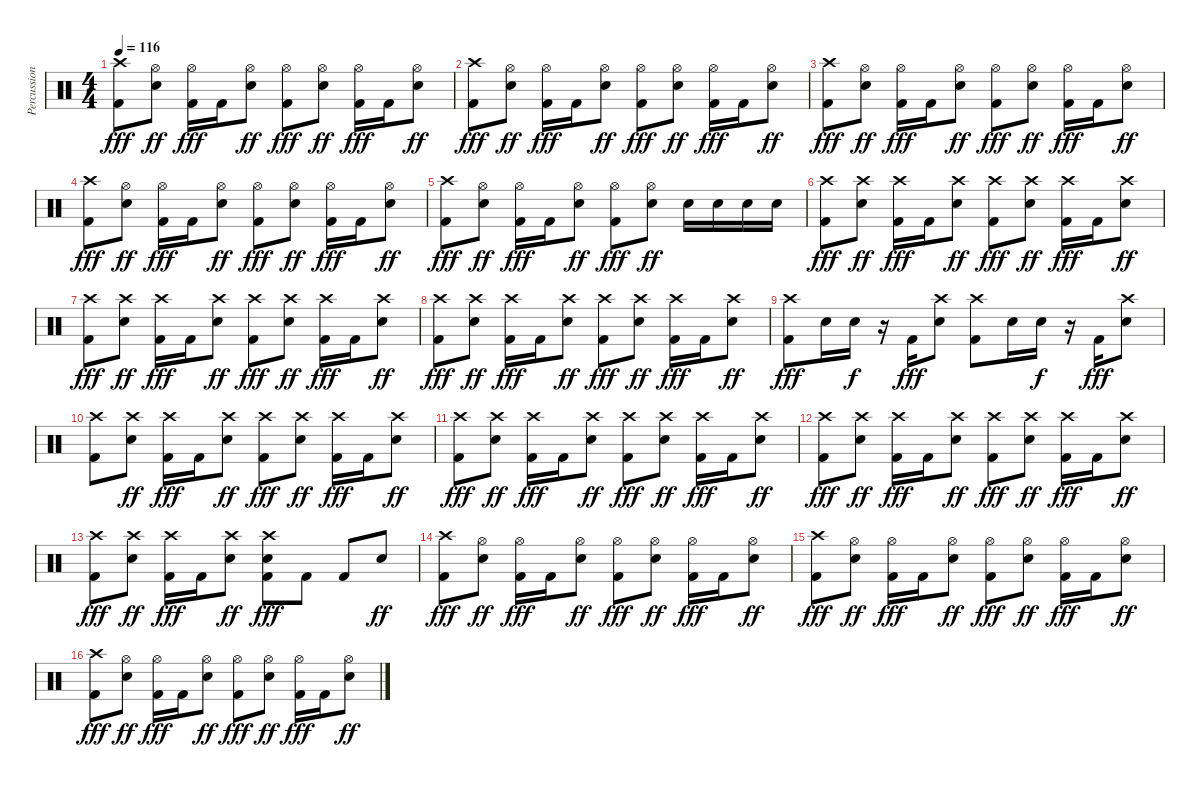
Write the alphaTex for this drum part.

\track ("Percussioni" "Percussion") {instrument percussion}
\staff {score}
\articulation defaults
\ts (4 4)
\tempo 116
\clef neutral
\ks c
("Crash high (hit)" "Kick (hit) 2").8{dy fff} ("Hi-Hat (open)" "Snare (hit) 2").8{dy ff} ("Hi-Hat (open)" "Kick (hit) 2").16{dy fff} "Kick (hit) 2".16 ("Hi-Hat (open)" "Snare (hit) 2").8{dy ff} ("Hi-Hat (open)" "Kick (hit) 2").8{dy fff} ("Hi-Hat (open)" "Snare (hit) 2").8{dy ff} ("Hi-Hat (open)" "Kick (hit) 2").16{dy fff} "Kick (hit) 2".16 ("Hi-Hat (open)" "Snare (hit) 2").8{dy ff} |
("Crash high (hit)" "Kick (hit) 2").8{dy fff} ("Hi-Hat (open)" "Snare (hit) 2").8{dy ff} ("Hi-Hat (open)" "Kick (hit) 2").16{dy fff} "Kick (hit) 2".16 ("Hi-Hat (open)" "Snare (hit) 2").8{dy ff} ("Hi-Hat (open)" "Kick (hit) 2").8{dy fff} ("Hi-Hat (open)" "Snare (hit) 2").8{dy ff} ("Hi-Hat (open)" "Kick (hit) 2").16{dy fff} "Kick (hit) 2".16 ("Hi-Hat (open)" "Snare (hit) 2").8{dy ff} |
("Crash high (hit)" "Kick (hit) 2").8{dy fff} ("Hi-Hat (open)" "Snare (hit) 2").8{dy ff} ("Hi-Hat (open)" "Kick (hit) 2").16{dy fff} "Kick (hit) 2".16 ("Hi-Hat (open)" "Snare (hit) 2").8{dy ff} ("Hi-Hat (open)" "Kick (hit) 2").8{dy fff} ("Hi-Hat (open)" "Snare (hit) 2").8{dy ff} ("Hi-Hat (open)" "Kick (hit) 2").16{dy fff} "Kick (hit) 2".16 ("Hi-Hat (open)" "Snare (hit) 2").8{dy ff} |
("Crash high (hit)" "Kick (hit) 2").8{dy fff} ("Hi-Hat (open)" "Snare (hit) 2").8{dy ff} ("Hi-Hat (open)" "Kick (hit) 2").16{dy fff} "Kick (hit) 2".16 ("Hi-Hat (open)" "Snare (hit) 2").8{dy ff} ("Hi-Hat (open)" "Kick (hit) 2").8{dy fff} ("Hi-Hat (open)" "Snare (hit) 2").8{dy ff} ("Hi-Hat (open)" "Kick (hit) 2").16{dy fff} "Kick (hit) 2".16 ("Hi-Hat (open)" "Snare (hit) 2").8{dy ff} |
("Crash high (hit)" "Kick (hit) 2").8{dy fff} ("Hi-Hat (open)" "Snare (hit) 2").8{dy ff} ("Hi-Hat (open)" "Kick (hit) 2").16{dy fff} "Kick (hit) 2".16 ("Hi-Hat (open)" "Snare (hit) 2").8{dy ff} ("Hi-Hat (open)" "Kick (hit) 2").8{dy fff} ("Hi-Hat (open)" "Snare (hit) 2").8{dy ff} "Snare (hit) 2".16 "Snare (hit) 2".16 "Snare (hit) 2".16 "Snare (hit) 2".16 |
("Crash high (hit)" "Kick (hit) 2").8{dy fff} ("Crash high (hit)" "Snare (hit) 2").8{dy ff} ("Crash high (hit)" "Kick (hit) 2").16{dy fff} "Kick (hit) 2".16 ("Crash high (hit)" "Snare (hit) 2").8{dy ff} ("Crash high (hit)" "Kick (hit) 2").8{dy fff} ("Crash high (hit)" "Snare (hit) 2").8{dy ff} ("Crash high (hit)" "Kick (hit) 2").16{dy fff} "Kick (hit) 2".16 ("Crash high (hit)" "Snare (hit) 2").8{dy ff} |
("Crash high (hit)" "Kick (hit) 2").8{dy fff} ("Crash high (hit)" "Snare (hit) 2").8{dy ff} ("Crash high (hit)" "Kick (hit) 2").16{dy fff} "Kick (hit) 2".16 ("Crash high (hit)" "Snare (hit) 2").8{dy ff} ("Crash high (hit)" "Kick (hit) 2").8{dy fff} ("Crash high (hit)" "Snare (hit) 2").8{dy ff} ("Crash high (hit)" "Kick (hit) 2").16{dy fff} "Kick (hit) 2".16 ("Crash high (hit)" "Snare (hit) 2").8{dy ff} |
("Crash high (hit)" "Kick (hit) 2").8{dy fff} ("Crash high (hit)" "Snare (hit) 2").8{dy ff} ("Crash high (hit)" "Kick (hit) 2").16{dy fff} "Kick (hit) 2".16 ("Crash high (hit)" "Snare (hit) 2").8{dy ff} ("Crash high (hit)" "Kick (hit) 2").8{dy fff} ("Crash high (hit)" "Snare (hit) 2").8{dy ff} ("Crash high (hit)" "Kick (hit) 2").16{dy fff} "Kick (hit) 2".16 ("Crash high (hit)" "Snare (hit) 2").8{dy ff} |
("Crash high (hit)" "Kick (hit) 2").8{dy fff} "Snare (hit) 2".16 "Snare (hit) 2".16{dy f} r.16 "Kick (hit) 2".16{dy fff} ("Crash high (hit)" "Snare (hit) 2").8 ("Crash high (hit)" "Kick (hit) 2").8 "Snare (hit) 2".16 "Snare (hit) 2".16{dy f} r.16 "Kick (hit) 2".16{dy fff} ("Crash high (hit)" "Snare (hit) 2").8 |
("Crash high (hit)" "Kick (hit) 2").8 ("Crash high (hit)" "Snare (hit) 2").8{dy ff} ("Crash high (hit)" "Kick (hit) 2").16{dy fff} "Kick (hit) 2".16 ("Crash high (hit)" "Snare (hit) 2").8{dy ff} ("Crash high (hit)" "Kick (hit) 2").8{dy fff} ("Crash high (hit)" "Snare (hit) 2").8{dy ff} ("Crash high (hit)" "Kick (hit) 2").16{dy fff} "Kick (hit) 2".16 ("Crash high (hit)" "Snare (hit) 2").8{dy ff} |
("Crash high (hit)" "Kick (hit) 2").8{dy fff} ("Crash high (hit)" "Snare (hit) 2").8{dy ff} ("Crash high (hit)" "Kick (hit) 2").16{dy fff} "Kick (hit) 2".16 ("Crash high (hit)" "Snare (hit) 2").8{dy ff} ("Crash high (hit)" "Kick (hit) 2").8{dy fff} ("Crash high (hit)" "Snare (hit) 2").8{dy ff} ("Crash high (hit)" "Kick (hit) 2").16{dy fff} "Kick (hit) 2".16 ("Crash high (hit)" "Snare (hit) 2").8{dy ff} |
("Crash high (hit)" "Kick (hit) 2").8{dy fff} ("Crash high (hit)" "Snare (hit) 2").8{dy ff} ("Crash high (hit)" "Kick (hit) 2").16{dy fff} "Kick (hit) 2".16 ("Crash high (hit)" "Snare (hit) 2").8{dy ff} ("Crash high (hit)" "Kick (hit) 2").8{dy fff} ("Crash high (hit)" "Snare (hit) 2").8{dy ff} ("Crash high (hit)" "Kick (hit) 2").16{dy fff} "Kick (hit) 2".16 ("Crash high (hit)" "Snare (hit) 2").8{dy ff} |
("Crash high (hit)" "Kick (hit) 2").8{dy fff} ("Crash high (hit)" "Snare (hit) 2").8{dy ff} ("Crash high (hit)" "Kick (hit) 2").16{dy fff} "Kick (hit) 2".16 ("Crash high (hit)" "Snare (hit) 2").8{dy ff} ("Crash high (hit)" "Snare (hit) 2" "Kick (hit) 2").8{dy fff} "Kick (hit) 2".8 "Kick (hit) 2".8 "Snare (hit) 2".8{dy ff} |
("Crash high (hit)" "Kick (hit) 2").8{dy fff} ("Hi-Hat (open)" "Snare (hit) 2").8{dy ff} ("Hi-Hat (open)" "Kick (hit) 2").16{dy fff} "Kick (hit) 2".16 ("Hi-Hat (open)" "Snare (hit) 2").8{dy ff} ("Hi-Hat (open)" "Kick (hit) 2").8{dy fff} ("Hi-Hat (open)" "Snare (hit) 2").8{dy ff} ("Hi-Hat (open)" "Kick (hit) 2").16{dy fff} "Kick (hit) 2".16 ("Hi-Hat (open)" "Snare (hit) 2").8{dy ff} |
("Crash high (hit)" "Kick (hit) 2").8{dy fff} ("Hi-Hat (open)" "Snare (hit) 2").8{dy ff} ("Hi-Hat (open)" "Kick (hit) 2").16{dy fff} "Kick (hit) 2".16 ("Hi-Hat (open)" "Snare (hit) 2").8{dy ff} ("Hi-Hat (open)" "Kick (hit) 2").8{dy fff} ("Hi-Hat (open)" "Snare (hit) 2").8{dy ff} ("Hi-Hat (open)" "Kick (hit) 2").16{dy fff} "Kick (hit) 2".16 ("Hi-Hat (open)" "Snare (hit) 2").8{dy ff} |
("Crash high (hit)" "Kick (hit) 2").8{dy fff} ("Hi-Hat (open)" "Snare (hit) 2").8{dy ff} ("Hi-Hat (open)" "Kick (hit) 2").16{dy fff} "Kick (hit) 2".16 ("Hi-Hat (open)" "Snare (hit) 2").8{dy ff} ("Hi-Hat (open)" "Kick (hit) 2").8{dy fff} ("Hi-Hat (open)" "Snare (hit) 2").8{dy ff} ("Hi-Hat (open)" "Kick (hit) 2").16{dy fff} "Kick (hit) 2".16 ("Hi-Hat (open)" "Snare (hit) 2").8{dy ff}
